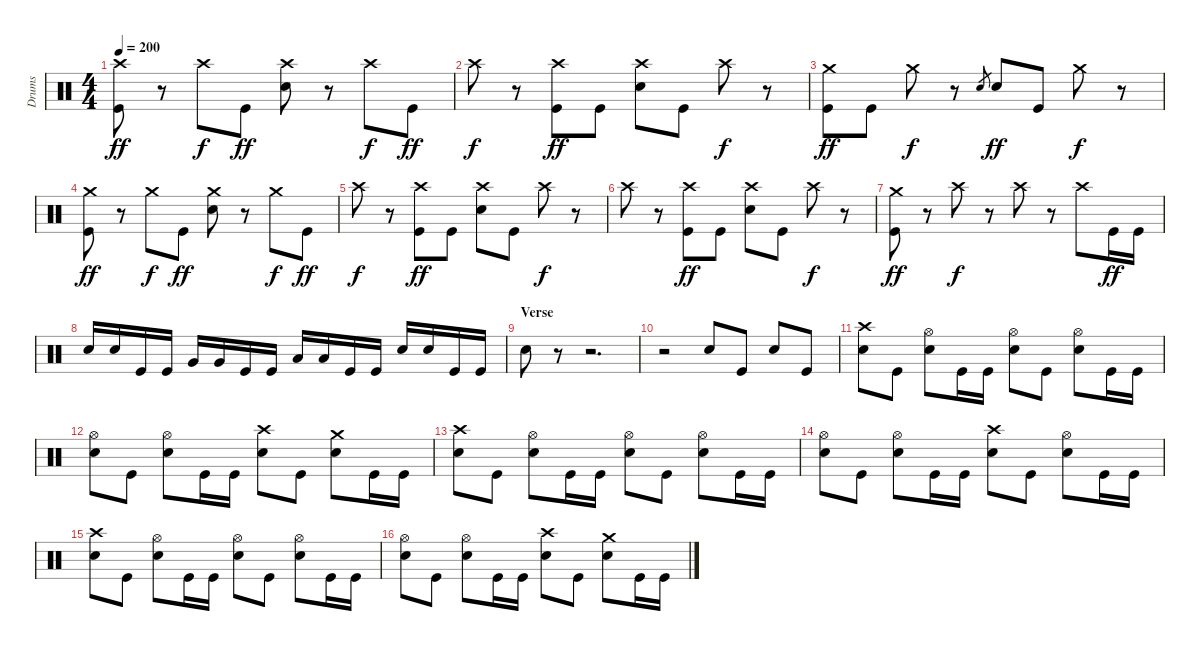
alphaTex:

\track ("Drums" "Drums") {instrument percussion}
\staff {score}
\articulation defaults
\ts (4 4)
\tempo 200
\clef neutral
\ks c
("Crash high (hit)" "Kick (hit)").8{dy ff} r.8 "Crash high (hit)".8{dy f} "Kick (hit)".8{dy ff} ("Crash high (hit)" "Electric Snare (hit)").8 r.8 "Crash high (hit)".8{dy f} "Kick (hit)".8{dy ff} |
"Crash high (hit)".8{dy f} r.8 ("Crash high (hit)" "Kick (hit)").8{dy ff} "Kick (hit)".8 ("Crash high (hit)" "Electric Snare (hit)").8 "Kick (hit)".8 "Crash high (hit)".8{dy f} r.8 |
("Crash medium (hit)" "Kick (hit)").8{dy ff} "Kick (hit)".8 "Crash medium (hit)".8{dy f} r.8 "Electric Snare (hit)".8{gr} "Electric Snare (hit)".8{dy ff} "Kick (hit)".8 "Crash medium (hit)".8{dy f} r.8 |
("Crash medium (hit)" "Kick (hit)").8{dy ff} r.8 "Crash medium (hit)".8{dy f} "Kick (hit)".8{dy ff} ("Crash medium (hit)" "Electric Snare (hit)").8 r.8 "Crash medium (hit)".8{dy f} "Kick (hit)".8{dy ff} |
"Crash high (hit)".8{dy f} r.8 ("Crash high (hit)" "Kick (hit)").8{dy ff} "Kick (hit)".8 ("Crash high (hit)" "Electric Snare (hit)").8 "Kick (hit)".8 "Crash high (hit)".8{dy f} r.8 |
"Crash high (hit)".8 r.8 ("Crash high (hit)" "Kick (hit)").8{dy ff} "Kick (hit)".8 ("Crash high (hit)" "Electric Snare (hit)").8 "Kick (hit)".8 "Crash high (hit)".8{dy f} r.8 |
("Crash medium (hit)" "Kick (hit)").8{dy ff} r.8 "Crash high (hit)".8{dy f} r.8 "Crash high (hit)".8 r.8 "Crash high (hit)".8 "Kick (hit)".16{dy ff} "Kick (hit)".16 |
"Electric Snare (hit)".16 "Electric Snare (hit)".16 "Kick (hit)".16 "Kick (hit)".16 "Very Low Tom (hit)".16 "Very Low Tom (hit)".16 "Kick (hit)".16 "Kick (hit)".16 "Low Floor Tom (hit)".16 "Low Floor Tom (hit)".16 "Kick (hit)".16 "Kick (hit)".16 "Electric Snare (hit)".16 "Electric Snare (hit)".16 "Kick (hit)".16 "Kick (hit)".16 |
\section ("" "Verse")
"Electric Snare (hit)".8 r.8 r.2{d} |
r.2 "Electric Snare (hit)".8 "Kick (hit)".8 "Electric Snare (hit)".8 "Kick (hit)".8 |
("Crash high (hit)" "Electric Snare (hit)").8 "Kick (hit)".8 ("Hi-Hat (open)" "Electric Snare (hit)").8 "Kick (hit)".16 "Kick (hit)".16 ("Hi-Hat (open)" "Electric Snare (hit)").8 "Kick (hit)".8 ("Hi-Hat (open)" "Electric Snare (hit)").8 "Kick (hit)".16 "Kick (hit)".16 |
("Hi-Hat (open)" "Electric Snare (hit)").8 "Kick (hit)".8 ("Hi-Hat (open)" "Electric Snare (hit)").8 "Kick (hit)".16 "Kick (hit)".16 ("Crash high (hit)" "Electric Snare (hit)").8 "Kick (hit)".8 ("Crash medium (hit)" "Electric Snare (hit)").8 "Kick (hit)".16 "Kick (hit)".16 |
("Crash high (hit)" "Electric Snare (hit)").8 "Kick (hit)".8 ("Hi-Hat (open)" "Electric Snare (hit)").8 "Kick (hit)".16 "Kick (hit)".16 ("Hi-Hat (open)" "Electric Snare (hit)").8 "Kick (hit)".8 ("Hi-Hat (open)" "Electric Snare (hit)").8 "Kick (hit)".16 "Kick (hit)".16 |
("Hi-Hat (open)" "Electric Snare (hit)").8 "Kick (hit)".8 ("Hi-Hat (open)" "Electric Snare (hit)").8 "Kick (hit)".16 "Kick (hit)".16 ("Crash high (hit)" "Electric Snare (hit)").8 "Kick (hit)".8 ("Hi-Hat (open)" "Electric Snare (hit)").8 "Kick (hit)".16 "Kick (hit)".16 |
("Crash high (hit)" "Electric Snare (hit)").8 "Kick (hit)".8 ("Hi-Hat (open)" "Electric Snare (hit)").8 "Kick (hit)".16 "Kick (hit)".16 ("Hi-Hat (open)" "Electric Snare (hit)").8 "Kick (hit)".8 ("Hi-Hat (open)" "Electric Snare (hit)").8 "Kick (hit)".16 "Kick (hit)".16 |
("Hi-Hat (open)" "Electric Snare (hit)").8 "Kick (hit)".8 ("Hi-Hat (open)" "Electric Snare (hit)").8 "Kick (hit)".16 "Kick (hit)".16 ("Crash high (hit)" "Electric Snare (hit)").8 "Kick (hit)".8 ("Crash medium (hit)" "Electric Snare (hit)").8 "Kick (hit)".16 "Kick (hit)".16
